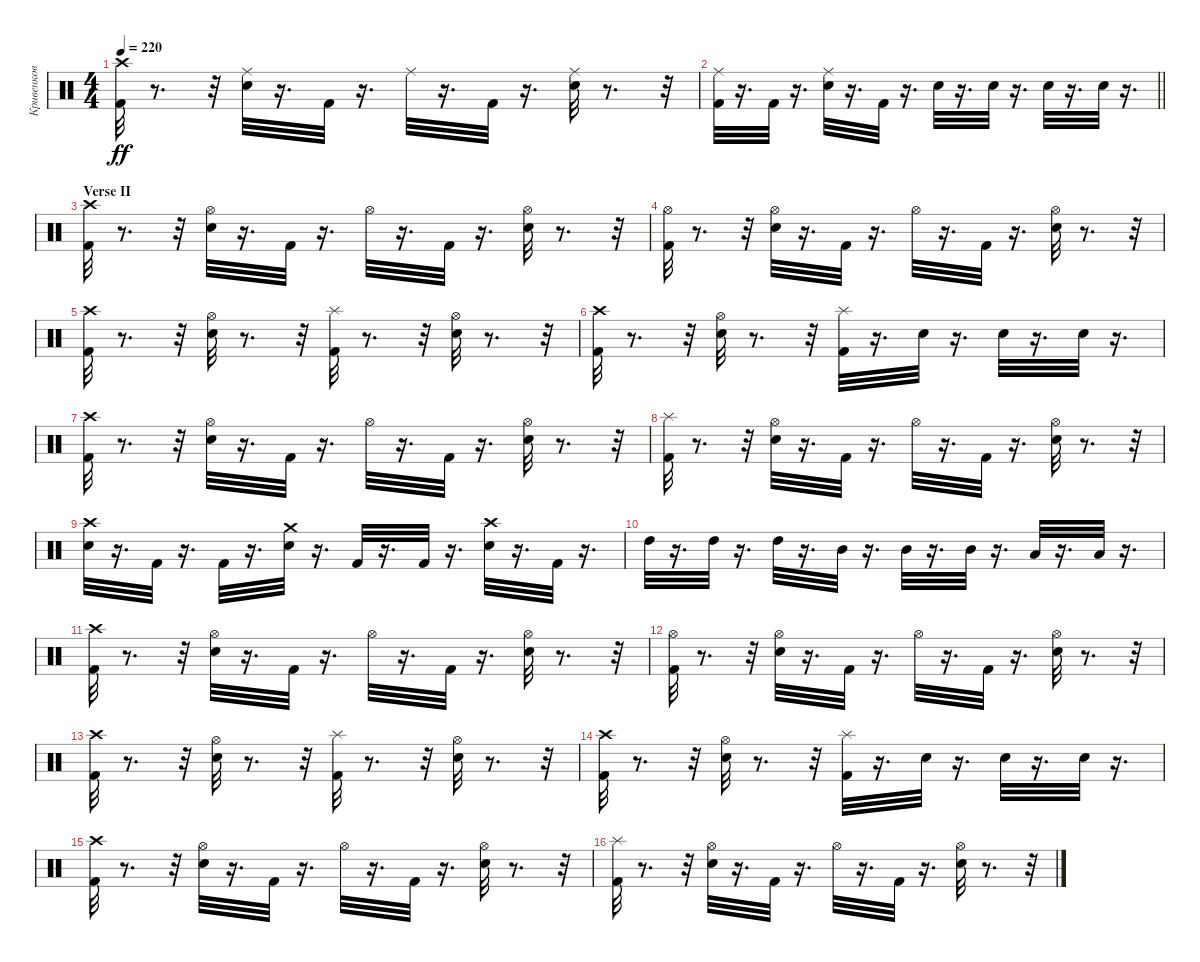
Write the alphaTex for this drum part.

\track ("Кривенков" "Кривенков") {instrument percussion}
\staff {score}
\articulation defaults
\ts (4 4)
\tempo 220
\clef neutral
\ks c
("Kick (hit) 2" "Crash high (hit)").32{dy ff} r.8{d} r.32 ("Electric Snare (hit)" "Ride (middle)").32 r.16{d} "Kick (hit) 2".32 r.16{d} "Ride (middle)".32 r.16{d} "Kick (hit) 2".32 r.16{d} ("Electric Snare (hit)" "Ride (middle)").32 r.8{d} r.32 |
\barLineRight lightlight
("Ride (middle)" "Kick (hit) 2").32 r.16{d} "Kick (hit) 2".32 r.16{d} ("Ride (middle)" "Electric Snare (hit)").32 r.16{d} "Kick (hit) 2".32 r.16{d} "Electric Snare (hit)".32 r.16{d} "Electric Snare (hit)".32 r.16{d} "Electric Snare (hit)".32 r.16{d} "Electric Snare (hit)".32 r.16{d} |
\section ("" "Verse II")
("Crash high (hit)" "Kick (hit) 2").32 r.8{d} r.32 ("Hi-Hat (open)" "Electric Snare (hit)").32 r.16{d} "Kick (hit) 2".32 r.16{d} "Hi-Hat (open)".32 r.16{d} "Kick (hit) 2".32 r.16{d} ("Hi-Hat (open)" "Electric Snare (hit)").32 r.8{d} r.32 |
("Kick (hit) 2" "Hi-Hat (open)").32 r.8{d} r.32 ("Electric Snare (hit)" "Hi-Hat (open)").32 r.16{d} "Kick (hit) 2".32 r.16{d} "Hi-Hat (open)".32 r.16{d} "Kick (hit) 2".32 r.16{d} ("Electric Snare (hit)" "Hi-Hat (open)").32 r.8{d} r.32 |
("Crash high (hit)" "Kick (hit) 2").32 r.8{d} r.32 ("Hi-Hat (open)" "Electric Snare (hit)").32 r.8{d} r.32 ("Splash (hit)" "Kick (hit) 2").32 r.8{d} r.32 ("Electric Snare (hit)" "Hi-Hat (open)").32 r.8{d} r.32 |
("Crash high (hit)" "Kick (hit) 2").32 r.8{d} r.32 ("Hi-Hat (open)" "Electric Snare (hit)").32 r.8{d} r.32 ("Splash (hit)" "Kick (hit) 2").32 r.16{d} "Electric Snare (hit)".32 r.16{d} "Electric Snare (hit)".32 r.16{d} "Electric Snare (hit)".32 r.16{d} |
("Crash high (hit)" "Kick (hit) 2").32 r.8{d} r.32 ("Hi-Hat (open)" "Electric Snare (hit)").32 r.16{d} "Kick (hit) 2".32 r.16{d} "Hi-Hat (open)".32 r.16{d} "Kick (hit) 2".32 r.16{d} ("Electric Snare (hit)" "Hi-Hat (open)").32 r.8{d} r.32 |
("Kick (hit) 2" "Splash (hit)").32 r.8{d} r.32 ("Electric Snare (hit)" "Hi-Hat (open)").32 r.16{d} "Kick (hit) 2".32 r.16{d} "Hi-Hat (open)".32 r.16{d} "Kick (hit) 2".32 r.16{d} ("Electric Snare (hit)" "Hi-Hat (open)").32 r.8{d} r.32 |
("Crash high (hit)" "Electric Snare (hit)").32 r.16{d} "Kick (hit) 2".32 r.16{d} "Kick (hit) 2".32 r.16{d} ("Crash medium (hit)" "Electric Snare (hit)").32 r.16{d} "Kick (hit) 2".32 r.16{d} "Kick (hit) 2".32 r.16{d} ("Crash high (hit)" "Electric Snare (hit)").32 r.16{d} "Kick (hit) 2".32 r.16{d} |
"High Tom (hit)".32 r.16{d} "High Tom (hit)".32 r.16{d} "High Tom (hit)".32 r.16{d} "Mid Tom (hit)".32 r.16{d} "Mid Tom (hit)".32 r.16{d} "Mid Tom (hit)".32 r.16{d} "Low Tom (hit)".32 r.16{d} "Low Tom (hit)".32 r.16{d} |
("Crash high (hit)" "Kick (hit) 2").32 r.8{d} r.32 ("Hi-Hat (open)" "Electric Snare (hit)").32 r.16{d} "Kick (hit) 2".32 r.16{d} "Hi-Hat (open)".32 r.16{d} "Kick (hit) 2".32 r.16{d} ("Hi-Hat (open)" "Electric Snare (hit)").32 r.8{d} r.32 |
("Kick (hit) 2" "Hi-Hat (open)").32 r.8{d} r.32 ("Electric Snare (hit)" "Hi-Hat (open)").32 r.16{d} "Kick (hit) 2".32 r.16{d} "Hi-Hat (open)".32 r.16{d} "Kick (hit) 2".32 r.16{d} ("Electric Snare (hit)" "Hi-Hat (open)").32 r.8{d} r.32 |
("Crash high (hit)" "Kick (hit) 2").32 r.8{d} r.32 ("Hi-Hat (open)" "Electric Snare (hit)").32 r.8{d} r.32 ("Splash (hit)" "Kick (hit) 2").32 r.8{d} r.32 ("Electric Snare (hit)" "Hi-Hat (open)").32 r.8{d} r.32 |
("Crash high (hit)" "Kick (hit) 2").32 r.8{d} r.32 ("Hi-Hat (open)" "Electric Snare (hit)").32 r.8{d} r.32 ("Splash (hit)" "Kick (hit) 2").32 r.16{d} "Electric Snare (hit)".32 r.16{d} "Electric Snare (hit)".32 r.16{d} "Electric Snare (hit)".32 r.16{d} |
("Crash high (hit)" "Kick (hit) 2").32 r.8{d} r.32 ("Hi-Hat (open)" "Electric Snare (hit)").32 r.16{d} "Kick (hit) 2".32 r.16{d} "Hi-Hat (open)".32 r.16{d} "Kick (hit) 2".32 r.16{d} ("Electric Snare (hit)" "Hi-Hat (open)").32 r.8{d} r.32 |
("Kick (hit) 2" "Splash (hit)").32 r.8{d} r.32 ("Electric Snare (hit)" "Hi-Hat (open)").32 r.16{d} "Kick (hit) 2".32 r.16{d} "Hi-Hat (open)".32 r.16{d} "Kick (hit) 2".32 r.16{d} ("Electric Snare (hit)" "Hi-Hat (open)").32 r.8{d} r.32
